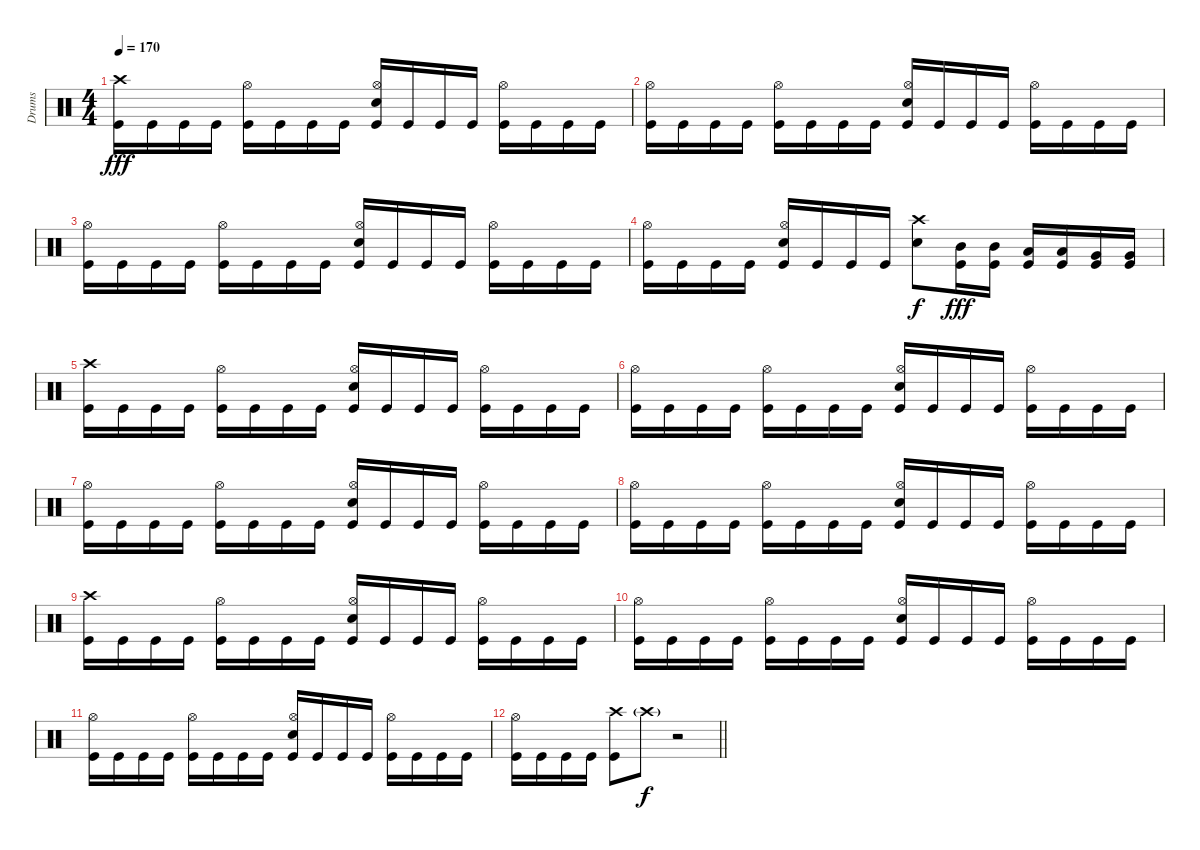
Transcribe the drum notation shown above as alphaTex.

\track ("Drums" "Drums") {instrument percussion}
\staff {score}
\articulation defaults
\ts (4 4)
\tempo 170
\clef neutral
\ks c
("Crash high (hit)" "Kick (hit)").16{dy fff} "Kick (hit)".16 "Kick (hit)".16 "Kick (hit)".16 ("Hi-Hat (open)" "Kick (hit)").16 "Kick (hit)".16 "Kick (hit)".16 "Kick (hit)".16 ("Hi-Hat (open)" "Snare (hit) 2" "Kick (hit)").16 "Kick (hit)".16 "Kick (hit)".16 "Kick (hit)".16 ("Hi-Hat (open)" "Kick (hit)").16 "Kick (hit)".16 "Kick (hit)".16 "Kick (hit)".16 |
("Hi-Hat (open)" "Kick (hit)").16 "Kick (hit)".16 "Kick (hit)".16 "Kick (hit)".16 ("Hi-Hat (open)" "Kick (hit)").16 "Kick (hit)".16 "Kick (hit)".16 "Kick (hit)".16 ("Hi-Hat (open)" "Snare (hit) 2" "Kick (hit)").16 "Kick (hit)".16 "Kick (hit)".16 "Kick (hit)".16 ("Hi-Hat (open)" "Kick (hit)").16 "Kick (hit)".16 "Kick (hit)".16 "Kick (hit)".16 |
("Hi-Hat (open)" "Kick (hit)").16 "Kick (hit)".16 "Kick (hit)".16 "Kick (hit)".16 ("Hi-Hat (open)" "Kick (hit)").16 "Kick (hit)".16 "Kick (hit)".16 "Kick (hit)".16 ("Hi-Hat (open)" "Snare (hit) 2" "Kick (hit)").16 "Kick (hit)".16 "Kick (hit)".16 "Kick (hit)".16 ("Hi-Hat (open)" "Kick (hit)").16 "Kick (hit)".16 "Kick (hit)".16 "Kick (hit)".16 |
("Hi-Hat (open)" "Kick (hit)").16 "Kick (hit)".16 "Kick (hit)".16 "Kick (hit)".16 ("Hi-Hat (open)" "Snare (hit) 2" "Kick (hit)").16 "Kick (hit)".16 "Kick (hit)".16 "Kick (hit)".16 ("Crash high (hit)" "Snare (hit) 2").8{dy f} ("Mid Tom (hit)" "Kick (hit)").16{dy fff} ("Mid Tom (hit)" "Kick (hit)").16 ("Low Tom (hit)" "Kick (hit)").16 ("Low Tom (hit)" "Kick (hit)").16 ("Very Low Tom (hit)" "Kick (hit)").16 ("Very Low Tom (hit)" "Kick (hit)").16 |
("Crash high (hit)" "Kick (hit)").16 "Kick (hit)".16 "Kick (hit)".16 "Kick (hit)".16 ("Hi-Hat (open)" "Kick (hit)").16 "Kick (hit)".16 "Kick (hit)".16 "Kick (hit)".16 ("Hi-Hat (open)" "Snare (hit) 2" "Kick (hit)").16 "Kick (hit)".16 "Kick (hit)".16 "Kick (hit)".16 ("Hi-Hat (open)" "Kick (hit)").16 "Kick (hit)".16 "Kick (hit)".16 "Kick (hit)".16 |
("Hi-Hat (open)" "Kick (hit)").16 "Kick (hit)".16 "Kick (hit)".16 "Kick (hit)".16 ("Hi-Hat (open)" "Kick (hit)").16 "Kick (hit)".16 "Kick (hit)".16 "Kick (hit)".16 ("Hi-Hat (open)" "Snare (hit) 2" "Kick (hit)").16 "Kick (hit)".16 "Kick (hit)".16 "Kick (hit)".16 ("Hi-Hat (open)" "Kick (hit)").16 "Kick (hit)".16 "Kick (hit)".16 "Kick (hit)".16 |
("Hi-Hat (open)" "Kick (hit)").16 "Kick (hit)".16 "Kick (hit)".16 "Kick (hit)".16 ("Hi-Hat (open)" "Kick (hit)").16 "Kick (hit)".16 "Kick (hit)".16 "Kick (hit)".16 ("Hi-Hat (open)" "Snare (hit) 2" "Kick (hit)").16 "Kick (hit)".16 "Kick (hit)".16 "Kick (hit)".16 ("Hi-Hat (open)" "Kick (hit)").16 "Kick (hit)".16 "Kick (hit)".16 "Kick (hit)".16 |
("Hi-Hat (open)" "Kick (hit)").16 "Kick (hit)".16 "Kick (hit)".16 "Kick (hit)".16 ("Hi-Hat (open)" "Kick (hit)").16 "Kick (hit)".16 "Kick (hit)".16 "Kick (hit)".16 ("Hi-Hat (open)" "Snare (hit) 2" "Kick (hit)").16 "Kick (hit)".16 "Kick (hit)".16 "Kick (hit)".16 ("Hi-Hat (open)" "Kick (hit)").16 "Kick (hit)".16 "Kick (hit)".16 "Kick (hit)".16 |
("Crash high (hit)" "Kick (hit)").16 "Kick (hit)".16 "Kick (hit)".16 "Kick (hit)".16 ("Hi-Hat (open)" "Kick (hit)").16 "Kick (hit)".16 "Kick (hit)".16 "Kick (hit)".16 ("Hi-Hat (open)" "Snare (hit) 2" "Kick (hit)").16 "Kick (hit)".16 "Kick (hit)".16 "Kick (hit)".16 ("Hi-Hat (open)" "Kick (hit)").16 "Kick (hit)".16 "Kick (hit)".16 "Kick (hit)".16 |
("Hi-Hat (open)" "Kick (hit)").16 "Kick (hit)".16 "Kick (hit)".16 "Kick (hit)".16 ("Hi-Hat (open)" "Kick (hit)").16 "Kick (hit)".16 "Kick (hit)".16 "Kick (hit)".16 ("Hi-Hat (open)" "Snare (hit) 2" "Kick (hit)").16 "Kick (hit)".16 "Kick (hit)".16 "Kick (hit)".16 ("Hi-Hat (open)" "Kick (hit)").16 "Kick (hit)".16 "Kick (hit)".16 "Kick (hit)".16 |
("Hi-Hat (open)" "Kick (hit)").16 "Kick (hit)".16 "Kick (hit)".16 "Kick (hit)".16 ("Hi-Hat (open)" "Kick (hit)").16 "Kick (hit)".16 "Kick (hit)".16 "Kick (hit)".16 ("Hi-Hat (open)" "Snare (hit) 2" "Kick (hit)").16 "Kick (hit)".16 "Kick (hit)".16 "Kick (hit)".16 ("Hi-Hat (open)" "Kick (hit)").16 "Kick (hit)".16 "Kick (hit)".16 "Kick (hit)".16 |
\barLineRight lightlight
("Hi-Hat (open)" "Kick (hit)").16 "Kick (hit)".16 "Kick (hit)".16 "Kick (hit)".16 ("Crash high (hit)" "Kick (hit)").8 "Crash high (hit)"{g}.8{dy f volume 0} r.2
